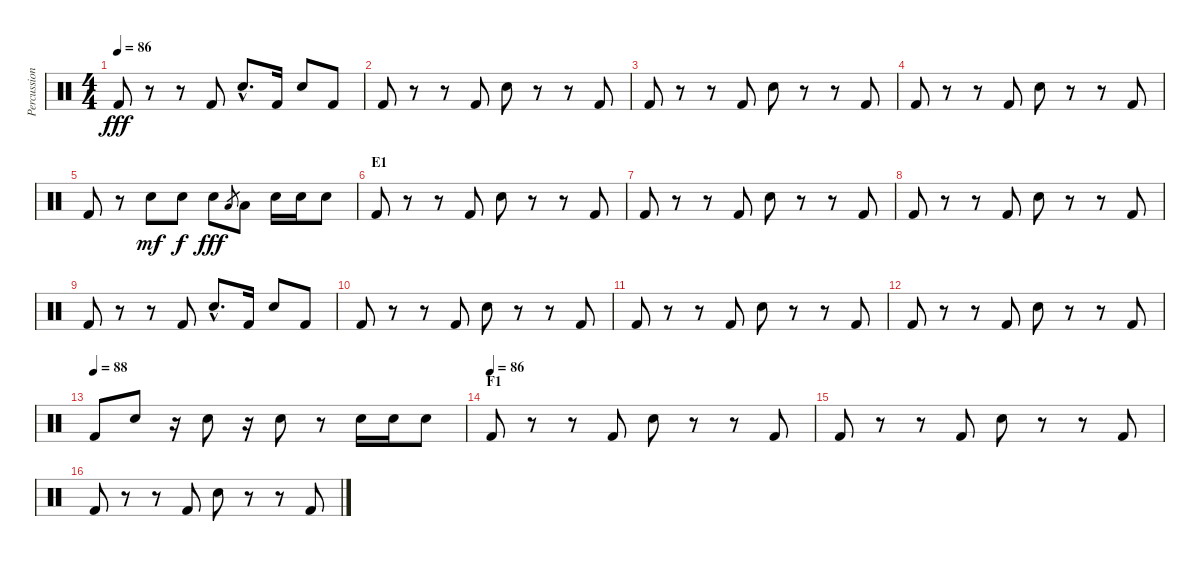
\track ("Percussion" "Percussion") {instrument percussion}
\staff {score}
\articulation defaults
\ts (4 4)
\tempo 86
\clef neutral
\ks c "Kick (hit) 2".8{dy fff}
r.8 r.8 "Kick (hit) 2".8 "Electric Snare (hit)"{hac}.8{d} "Kick (hit) 2".16 "Electric Snare (hit)".8 "Kick (hit) 2".8 |
"Kick (hit) 2".8 r.8 r.8 "Kick (hit) 2".8 "Electric Snare (hit)".8 r.8 r.8 "Kick (hit) 2".8 |
"Kick (hit) 2".8 r.8 r.8 "Kick (hit) 2".8 "Electric Snare (hit)".8 r.8 r.8 "Kick (hit) 2".8 |
"Kick (hit) 2".8 r.8 r.8 "Kick (hit) 2".8 "Electric Snare (hit)".8 r.8 r.8 "Kick (hit) 2".8 |
"Kick (hit) 2".8 r.8 "Electric Snare (hit)".8{dy mf} "Electric Snare (hit)".8{dy f} "Electric Snare (hit)".8{dy fff} "Low Tom (hit)".8{gr} "Low Tom (hit)".8 "Electric Snare (hit)".16 "Electric Snare (hit)".16 "Electric Snare (hit)".8 |
\section ("" "E1")
"Kick (hit) 2".8 r.8 r.8 "Kick (hit) 2".8 "Electric Snare (hit)".8 r.8 r.8 "Kick (hit) 2".8 |
"Kick (hit) 2".8 r.8 r.8 "Kick (hit) 2".8 "Electric Snare (hit)".8 r.8 r.8 "Kick (hit) 2".8 |
"Kick (hit) 2".8 r.8 r.8 "Kick (hit) 2".8 "Electric Snare (hit)".8 r.8 r.8 "Kick (hit) 2".8 |
"Kick (hit) 2".8 r.8 r.8 "Kick (hit) 2".8 "Electric Snare (hit)"{hac}.8{d} "Kick (hit) 2".16 "Electric Snare (hit)".8 "Kick (hit) 2".8 |
"Kick (hit) 2".8 r.8 r.8 "Kick (hit) 2".8 "Electric Snare (hit)".8 r.8 r.8 "Kick (hit) 2".8 |
"Kick (hit) 2".8 r.8 r.8 "Kick (hit) 2".8 "Electric Snare (hit)".8 r.8 r.8 "Kick (hit) 2".8 |
"Kick (hit) 2".8 r.8 r.8 "Kick (hit) 2".8 "Electric Snare (hit)".8 r.8 r.8 "Kick (hit) 2".8 |
\tempo (88)
"Kick (hit) 2".8 "Electric Snare (hit)".8 r.16 "Electric Snare (hit)".8 r.16 "Electric Snare (hit)".8 r.8 "Electric Snare (hit)".16 "Electric Snare (hit)".16 "Electric Snare (hit)".8 |
\section ("" "F1")
\tempo (86)
"Kick (hit) 2".8 r.8 r.8 "Kick (hit) 2".8 "Electric Snare (hit)".8 r.8 r.8 "Kick (hit) 2".8 |
"Kick (hit) 2".8 r.8 r.8 "Kick (hit) 2".8 "Electric Snare (hit)".8 r.8 r.8 "Kick (hit) 2".8 |
"Kick (hit) 2".8 r.8 r.8 "Kick (hit) 2".8 "Electric Snare (hit)".8 r.8 r.8 "Kick (hit) 2".8
